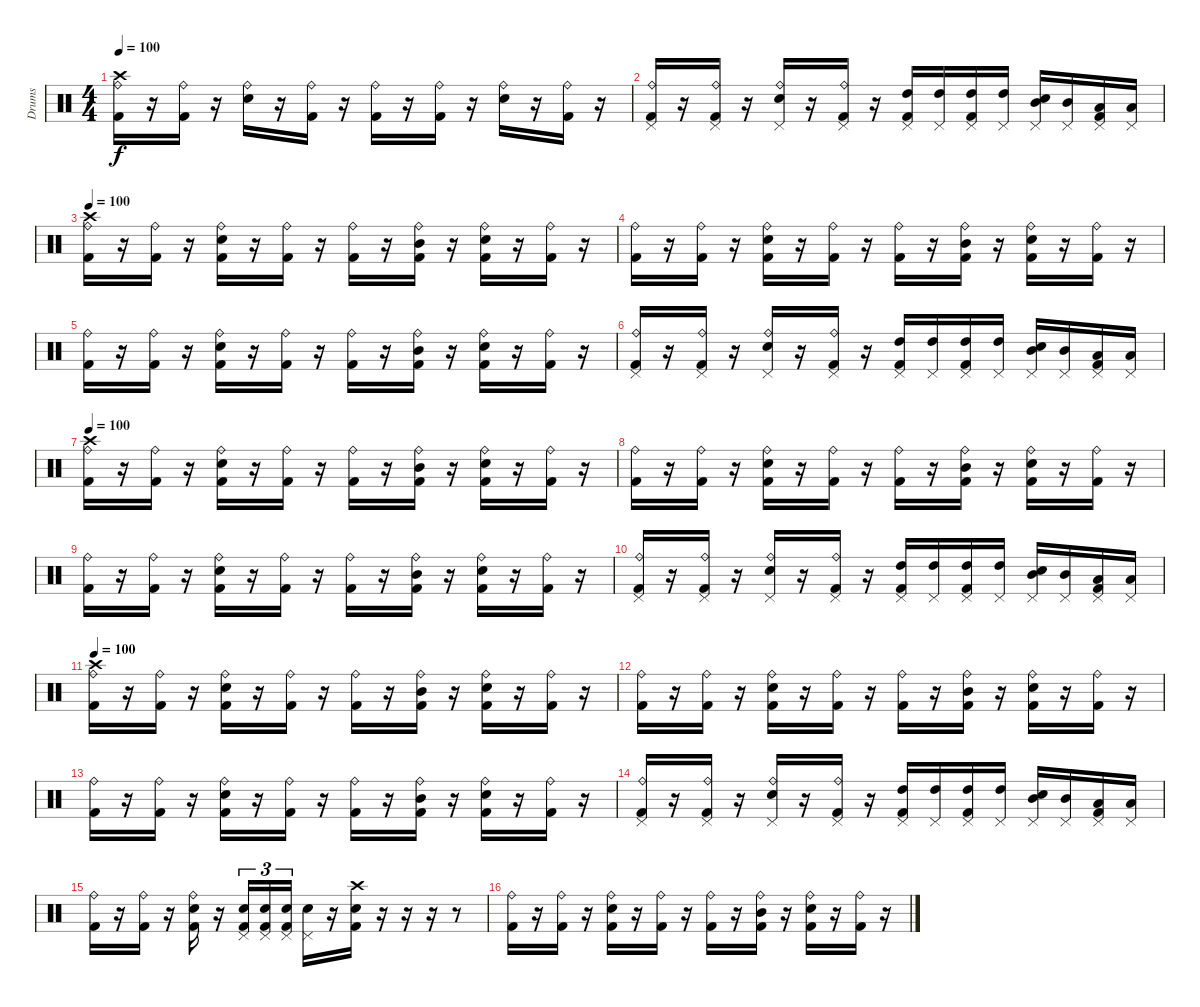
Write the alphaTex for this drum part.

\track ("Drums" "Drums") {instrument percussion}
\staff {score}
\articulation defaults
\ts (4 4)
\tempo 100
\clef neutral
\ks c
("Crash high (hit)" "Ride (bell)" "Kick (hit) 2").16{dy f} r.16 ("Ride (bell)" "Kick (hit) 2").16 r.16 ("Ride (bell)" "Snare (hit) 2").16 r.16 ("Ride (bell)" "Kick (hit) 2").16 r.16 ("Ride (bell)" "Kick (hit) 2").16 r.16 ("Ride (bell)" "Kick (hit) 2").16 r.16 ("Ride (bell)" "Snare (hit) 2").16 r.16 ("Ride (bell)" "Kick (hit) 2").16 r.16 |
("Ride (bell)" "Pedal Hi-Hat (hit)" "Kick (hit) 2").16 r.16 ("Ride (bell)" "Pedal Hi-Hat (hit)" "Kick (hit) 2").16 r.16 ("Ride (bell)" "Pedal Hi-Hat (hit)" "Snare (hit) 2").16 r.16 ("Ride (bell)" "Pedal Hi-Hat (hit)" "Kick (hit) 2").16 r.16 ("Pedal Hi-Hat (hit)" "High Tom (hit)" "Kick (hit) 2").16 ("Pedal Hi-Hat (hit)" "High Tom (hit)").16 ("Pedal Hi-Hat (hit)" "High Tom (hit)" "Kick (hit) 2").16 ("Pedal Hi-Hat (hit)" "High Tom (hit)").16 ("Pedal Hi-Hat (hit)" "Mid Tom (hit)" "Snare (hit) 2").16 ("Pedal Hi-Hat (hit)" "Mid Tom (hit)").16 ("Pedal Hi-Hat (hit)" "Low Tom (hit)" "Kick (hit) 2").16 ("Pedal Hi-Hat (hit)" "Low Tom (hit)").16 |
\tempo 100
("Crash high (hit)" "Ride (bell)" "Kick (hit) 2").16 r.16 ("Ride (bell)" "Kick (hit) 2").16 r.16 ("Ride (bell)" "Snare (hit) 2" "Kick (hit) 2").16 r.16 ("Ride (bell)" "Kick (hit) 2").16 r.16 ("Ride (bell)" "Kick (hit) 2").16 r.16 ("Ride (bell)" "Mid Tom (hit)" "Kick (hit) 2").16 r.16 ("Ride (bell)" "Snare (hit) 2" "Kick (hit) 2").16 r.16 ("Ride (bell)" "Kick (hit) 2").16 r.16 |
("Ride (bell)" "Kick (hit) 2").16 r.16 ("Ride (bell)" "Kick (hit) 2").16 r.16 ("Ride (bell)" "Snare (hit) 2" "Kick (hit) 2").16 r.16 ("Ride (bell)" "Kick (hit) 2").16 r.16 ("Ride (bell)" "Kick (hit) 2").16 r.16 ("Ride (bell)" "Mid Tom (hit)" "Kick (hit) 2").16 r.16 ("Ride (bell)" "Snare (hit) 2" "Kick (hit) 2").16 r.16 ("Ride (bell)" "Kick (hit) 2").16 r.16 |
("Ride (bell)" "Kick (hit) 2").16 r.16 ("Ride (bell)" "Kick (hit) 2").16 r.16 ("Ride (bell)" "Snare (hit) 2" "Kick (hit) 2").16 r.16 ("Ride (bell)" "Kick (hit) 2").16 r.16 ("Ride (bell)" "Kick (hit) 2").16 r.16 ("Ride (bell)" "Mid Tom (hit)" "Kick (hit) 2").16 r.16 ("Ride (bell)" "Snare (hit) 2" "Kick (hit) 2").16 r.16 ("Ride (bell)" "Kick (hit) 2").16 r.16 |
("Ride (bell)" "Pedal Hi-Hat (hit)" "Kick (hit) 2").16 r.16 ("Ride (bell)" "Pedal Hi-Hat (hit)" "Kick (hit) 2").16 r.16 ("Ride (bell)" "Pedal Hi-Hat (hit)" "Snare (hit) 2").16 r.16 ("Ride (bell)" "Pedal Hi-Hat (hit)" "Kick (hit) 2").16 r.16 ("Pedal Hi-Hat (hit)" "High Tom (hit)" "Kick (hit) 2").16 ("Pedal Hi-Hat (hit)" "High Tom (hit)").16 ("Pedal Hi-Hat (hit)" "High Tom (hit)" "Kick (hit) 2").16 ("Pedal Hi-Hat (hit)" "High Tom (hit)").16 ("Pedal Hi-Hat (hit)" "Mid Tom (hit)" "Snare (hit) 2").16 ("Pedal Hi-Hat (hit)" "Mid Tom (hit)").16 ("Pedal Hi-Hat (hit)" "Low Tom (hit)" "Kick (hit) 2").16 ("Pedal Hi-Hat (hit)" "Low Tom (hit)").16 |
\tempo 100
("Crash high (hit)" "Ride (bell)" "Kick (hit) 2").16 r.16 ("Ride (bell)" "Kick (hit) 2").16 r.16 ("Ride (bell)" "Snare (hit) 2" "Kick (hit) 2").16 r.16 ("Ride (bell)" "Kick (hit) 2").16 r.16 ("Ride (bell)" "Kick (hit) 2").16 r.16 ("Ride (bell)" "Mid Tom (hit)" "Kick (hit) 2").16 r.16 ("Ride (bell)" "Snare (hit) 2" "Kick (hit) 2").16 r.16 ("Ride (bell)" "Kick (hit) 2").16 r.16 |
("Ride (bell)" "Kick (hit) 2").16 r.16 ("Ride (bell)" "Kick (hit) 2").16 r.16 ("Ride (bell)" "Snare (hit) 2" "Kick (hit) 2").16 r.16 ("Ride (bell)" "Kick (hit) 2").16 r.16 ("Ride (bell)" "Kick (hit) 2").16 r.16 ("Ride (bell)" "Mid Tom (hit)" "Kick (hit) 2").16 r.16 ("Ride (bell)" "Snare (hit) 2" "Kick (hit) 2").16 r.16 ("Ride (bell)" "Kick (hit) 2").16 r.16 |
("Ride (bell)" "Kick (hit) 2").16 r.16 ("Ride (bell)" "Kick (hit) 2").16 r.16 ("Ride (bell)" "Snare (hit) 2" "Kick (hit) 2").16 r.16 ("Ride (bell)" "Kick (hit) 2").16 r.16 ("Ride (bell)" "Kick (hit) 2").16 r.16 ("Ride (bell)" "Mid Tom (hit)" "Kick (hit) 2").16 r.16 ("Ride (bell)" "Snare (hit) 2" "Kick (hit) 2").16 r.16 ("Ride (bell)" "Kick (hit) 2").16 r.16 |
("Ride (bell)" "Pedal Hi-Hat (hit)" "Kick (hit) 2").16 r.16 ("Ride (bell)" "Pedal Hi-Hat (hit)" "Kick (hit) 2").16 r.16 ("Ride (bell)" "Pedal Hi-Hat (hit)" "Snare (hit) 2").16 r.16 ("Ride (bell)" "Pedal Hi-Hat (hit)" "Kick (hit) 2").16 r.16 ("Pedal Hi-Hat (hit)" "High Tom (hit)" "Kick (hit) 2").16 ("Pedal Hi-Hat (hit)" "High Tom (hit)").16 ("Pedal Hi-Hat (hit)" "High Tom (hit)" "Kick (hit) 2").16 ("Pedal Hi-Hat (hit)" "High Tom (hit)").16 ("Pedal Hi-Hat (hit)" "Mid Tom (hit)" "Snare (hit) 2").16 ("Pedal Hi-Hat (hit)" "Mid Tom (hit)").16 ("Pedal Hi-Hat (hit)" "Low Tom (hit)" "Kick (hit) 2").16 ("Pedal Hi-Hat (hit)" "Low Tom (hit)").16 |
\tempo 100
("Crash high (hit)" "Ride (bell)" "Kick (hit) 2").16 r.16 ("Ride (bell)" "Kick (hit) 2").16 r.16 ("Ride (bell)" "Snare (hit) 2" "Kick (hit) 2").16 r.16 ("Ride (bell)" "Kick (hit) 2").16 r.16 ("Ride (bell)" "Kick (hit) 2").16 r.16 ("Ride (bell)" "Mid Tom (hit)" "Kick (hit) 2").16 r.16 ("Ride (bell)" "Snare (hit) 2" "Kick (hit) 2").16 r.16 ("Ride (bell)" "Kick (hit) 2").16 r.16 |
("Ride (bell)" "Kick (hit) 2").16 r.16 ("Ride (bell)" "Kick (hit) 2").16 r.16 ("Ride (bell)" "Snare (hit) 2" "Kick (hit) 2").16 r.16 ("Ride (bell)" "Kick (hit) 2").16 r.16 ("Ride (bell)" "Kick (hit) 2").16 r.16 ("Ride (bell)" "Mid Tom (hit)" "Kick (hit) 2").16 r.16 ("Ride (bell)" "Snare (hit) 2" "Kick (hit) 2").16 r.16 ("Ride (bell)" "Kick (hit) 2").16 r.16 |
("Ride (bell)" "Kick (hit) 2").16 r.16 ("Ride (bell)" "Kick (hit) 2").16 r.16 ("Ride (bell)" "Snare (hit) 2" "Kick (hit) 2").16 r.16 ("Ride (bell)" "Kick (hit) 2").16 r.16 ("Ride (bell)" "Kick (hit) 2").16 r.16 ("Ride (bell)" "Mid Tom (hit)" "Kick (hit) 2").16 r.16 ("Ride (bell)" "Snare (hit) 2" "Kick (hit) 2").16 r.16 ("Ride (bell)" "Kick (hit) 2").16 r.16 |
("Ride (bell)" "Pedal Hi-Hat (hit)" "Kick (hit) 2").16 r.16 ("Ride (bell)" "Pedal Hi-Hat (hit)" "Kick (hit) 2").16 r.16 ("Ride (bell)" "Pedal Hi-Hat (hit)" "Snare (hit) 2").16 r.16 ("Ride (bell)" "Pedal Hi-Hat (hit)" "Kick (hit) 2").16 r.16 ("Pedal Hi-Hat (hit)" "High Tom (hit)" "Kick (hit) 2").16 ("Pedal Hi-Hat (hit)" "High Tom (hit)").16 ("Pedal Hi-Hat (hit)" "High Tom (hit)" "Kick (hit) 2").16 ("Pedal Hi-Hat (hit)" "High Tom (hit)").16 ("Pedal Hi-Hat (hit)" "Mid Tom (hit)" "Snare (hit) 2").16 ("Pedal Hi-Hat (hit)" "Mid Tom (hit)").16 ("Pedal Hi-Hat (hit)" "Low Tom (hit)" "Kick (hit) 2").16 ("Pedal Hi-Hat (hit)" "Low Tom (hit)").16 |
("Ride (bell)" "Kick (hit) 2").16 r.16 ("Ride (bell)" "Kick (hit) 2").16 r.16 ("Ride (bell)" "Snare (hit) 2" "Kick (hit) 2").16 r.16 ("Pedal Hi-Hat (hit)" "Kick (hit) 2" "Snare (hit) 2").16{tu (3 2)} ("Pedal Hi-Hat (hit)" "Kick (hit) 2" "Snare (hit) 2").16{tu (3 2)} ("Pedal Hi-Hat (hit)" "Kick (hit) 2" "Snare (hit) 2").16{tu (3 2)} ("Pedal Hi-Hat (hit)" "Snare (hit) 2").16 r.16 ("Crash high (hit)" "Snare (hit) 2" "Kick (hit) 2").16 r.16 r.16 r.16 r.8 |
("Ride (bell)" "Kick (hit) 2").16 r.16 ("Ride (bell)" "Kick (hit) 2").16 r.16 ("Ride (bell)" "Snare (hit) 2" "Kick (hit) 2").16 r.16 ("Ride (bell)" "Kick (hit) 2").16 r.16 ("Ride (bell)" "Kick (hit) 2").16 r.16 ("Ride (bell)" "Mid Tom (hit)" "Kick (hit) 2").16 r.16 ("Ride (bell)" "Snare (hit) 2" "Kick (hit) 2").16 r.16 ("Ride (bell)" "Kick (hit) 2").16 r.16
